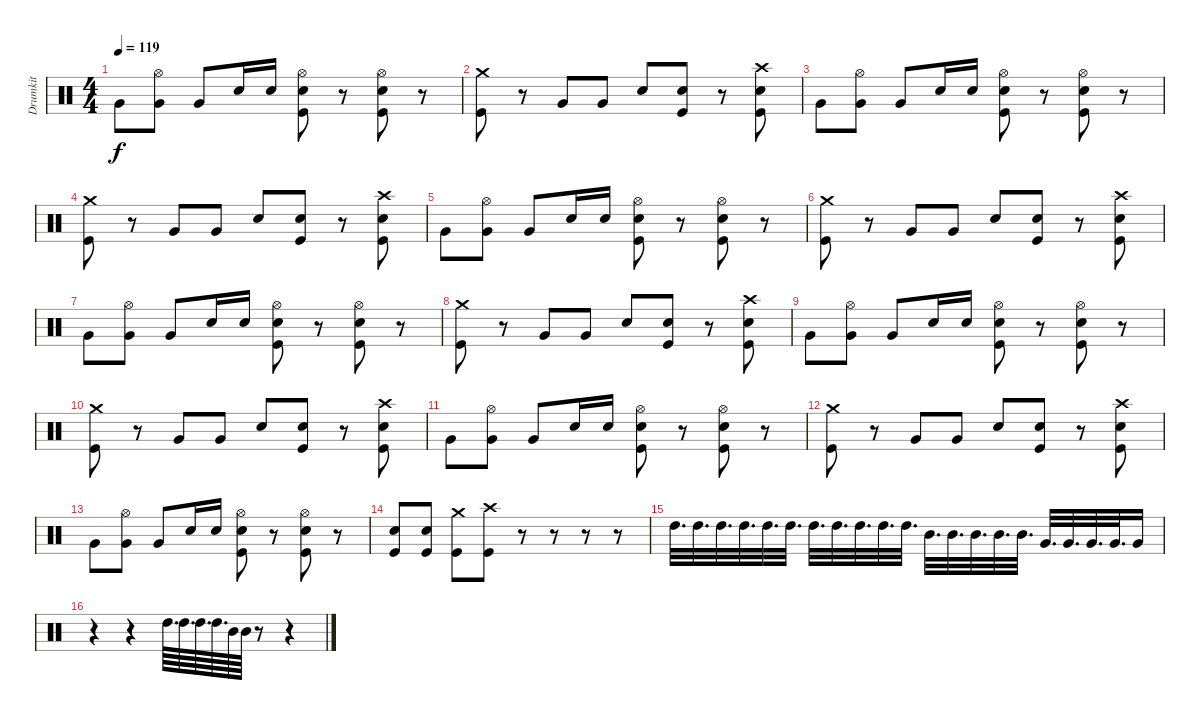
\track ("Drumkit" "Drumkit") {instrument percussion}
\staff {score}
\articulation defaults
\ts (4 4)
\tempo 119
\clef neutral
\ks c "Very Low Tom (hit)".8{dy f}
("Hi-Hat (open)" "Very Low Tom (hit)").8 "Very Low Tom (hit)".8 "Snare (hit) 2".16 "Snare (hit) 2".16 ("Hi-Hat (open)" "Snare (hit) 2" "Kick (hit)").8 r.8 ("Hi-Hat (open)" "Snare (hit) 2" "Kick (hit)").8 r.8 |
("Crash medium (hit)" "Kick (hit)").8 r.8 "Very Low Tom (hit)".8 "Very Low Tom (hit)".8 "Snare (hit) 2".8 ("Snare (hit) 2" "Kick (hit)").8 r.8 ("Crash high (hit)" "Snare (hit) 2" "Kick (hit)").8 |
"Very Low Tom (hit)".8 ("Hi-Hat (open)" "Very Low Tom (hit)").8 "Very Low Tom (hit)".8 "Snare (hit) 2".16 "Snare (hit) 2".16 ("Hi-Hat (open)" "Snare (hit) 2" "Kick (hit)").8 r.8 ("Hi-Hat (open)" "Snare (hit) 2" "Kick (hit)").8 r.8 |
("Crash medium (hit)" "Kick (hit)").8 r.8 "Very Low Tom (hit)".8 "Very Low Tom (hit)".8 "Snare (hit) 2".8 ("Snare (hit) 2" "Kick (hit)").8 r.8 ("Crash high (hit)" "Snare (hit) 2" "Kick (hit)").8 |
"Very Low Tom (hit)".8 ("Hi-Hat (open)" "Very Low Tom (hit)").8 "Very Low Tom (hit)".8 "Snare (hit) 2".16 "Snare (hit) 2".16 ("Hi-Hat (open)" "Snare (hit) 2" "Kick (hit)").8 r.8 ("Hi-Hat (open)" "Snare (hit) 2" "Kick (hit)").8 r.8 |
("Crash medium (hit)" "Kick (hit)").8 r.8 "Very Low Tom (hit)".8 "Very Low Tom (hit)".8 "Snare (hit) 2".8 ("Snare (hit) 2" "Kick (hit)").8 r.8 ("Crash high (hit)" "Snare (hit) 2" "Kick (hit)").8 |
"Very Low Tom (hit)".8 ("Hi-Hat (open)" "Very Low Tom (hit)").8 "Very Low Tom (hit)".8 "Snare (hit) 2".16 "Snare (hit) 2".16 ("Hi-Hat (open)" "Snare (hit) 2" "Kick (hit)").8 r.8 ("Hi-Hat (open)" "Snare (hit) 2" "Kick (hit)").8 r.8 |
("Crash medium (hit)" "Kick (hit)").8 r.8 "Very Low Tom (hit)".8 "Very Low Tom (hit)".8 "Snare (hit) 2".8 ("Snare (hit) 2" "Kick (hit)").8 r.8 ("Crash high (hit)" "Snare (hit) 2" "Kick (hit)").8 |
"Very Low Tom (hit)".8 ("Hi-Hat (open)" "Very Low Tom (hit)").8 "Very Low Tom (hit)".8 "Snare (hit) 2".16 "Snare (hit) 2".16 ("Hi-Hat (open)" "Snare (hit) 2" "Kick (hit)").8 r.8 ("Hi-Hat (open)" "Snare (hit) 2" "Kick (hit)").8 r.8 |
("Crash medium (hit)" "Kick (hit)").8 r.8 "Very Low Tom (hit)".8 "Very Low Tom (hit)".8 "Snare (hit) 2".8 ("Snare (hit) 2" "Kick (hit)").8 r.8 ("Crash high (hit)" "Snare (hit) 2" "Kick (hit)").8 |
"Very Low Tom (hit)".8 ("Hi-Hat (open)" "Very Low Tom (hit)").8 "Very Low Tom (hit)".8 "Snare (hit) 2".16 "Snare (hit) 2".16 ("Hi-Hat (open)" "Snare (hit) 2" "Kick (hit)").8 r.8 ("Hi-Hat (open)" "Snare (hit) 2" "Kick (hit)").8 r.8 |
("Crash medium (hit)" "Kick (hit)").8 r.8 "Very Low Tom (hit)".8 "Very Low Tom (hit)".8 "Snare (hit) 2".8 ("Snare (hit) 2" "Kick (hit)").8 r.8 ("Crash high (hit)" "Snare (hit) 2" "Kick (hit)").8 |
"Very Low Tom (hit)".8 ("Hi-Hat (open)" "Very Low Tom (hit)").8 "Very Low Tom (hit)".8 "Snare (hit) 2".16 "Snare (hit) 2".16 ("Hi-Hat (open)" "Snare (hit) 2" "Kick (hit)").8 r.8 ("Hi-Hat (open)" "Snare (hit) 2" "Kick (hit)").8 r.8 |
("Snare (hit) 2" "Kick (hit)").8 ("Snare (hit) 2" "Kick (hit)").8 ("Crash medium (hit)" "Kick (hit)").8 ("Crash high (hit)" "Kick (hit)").8 r.8 r.8 r.8 r.8 |
"High Tom (hit)".32{d} "High Tom (hit)".32{d} "High Tom (hit)".32{d} "High Tom (hit)".32{d} "High Tom (hit)".32{d} "High Tom (hit)".32{d} "High Tom (hit)".32{d} "High Tom (hit)".32{d} "High Tom (hit)".32{d} "High Tom (hit)".32{d} "High Tom (hit)".32{d} "Mid Tom (hit)".32{d} "Mid Tom (hit)".32{d} "Mid Tom (hit)".32{d} "Mid Tom (hit)".32{d} "Mid Tom (hit)".32{d} "Very Low Tom (hit)".32{d} "Very Low Tom (hit)".32{d} "Very Low Tom (hit)".32{d} "Very Low Tom (hit)".32{d} "Very Low Tom (hit)".16 |
r.4 r.4 "High Tom (hit)".64{d} "High Tom (hit)".64{d} "High Tom (hit)".64{d} "High Tom (hit)".64{d} "Mid Tom (hit)".64 "Mid Tom (hit)".64 r.8 r.4
